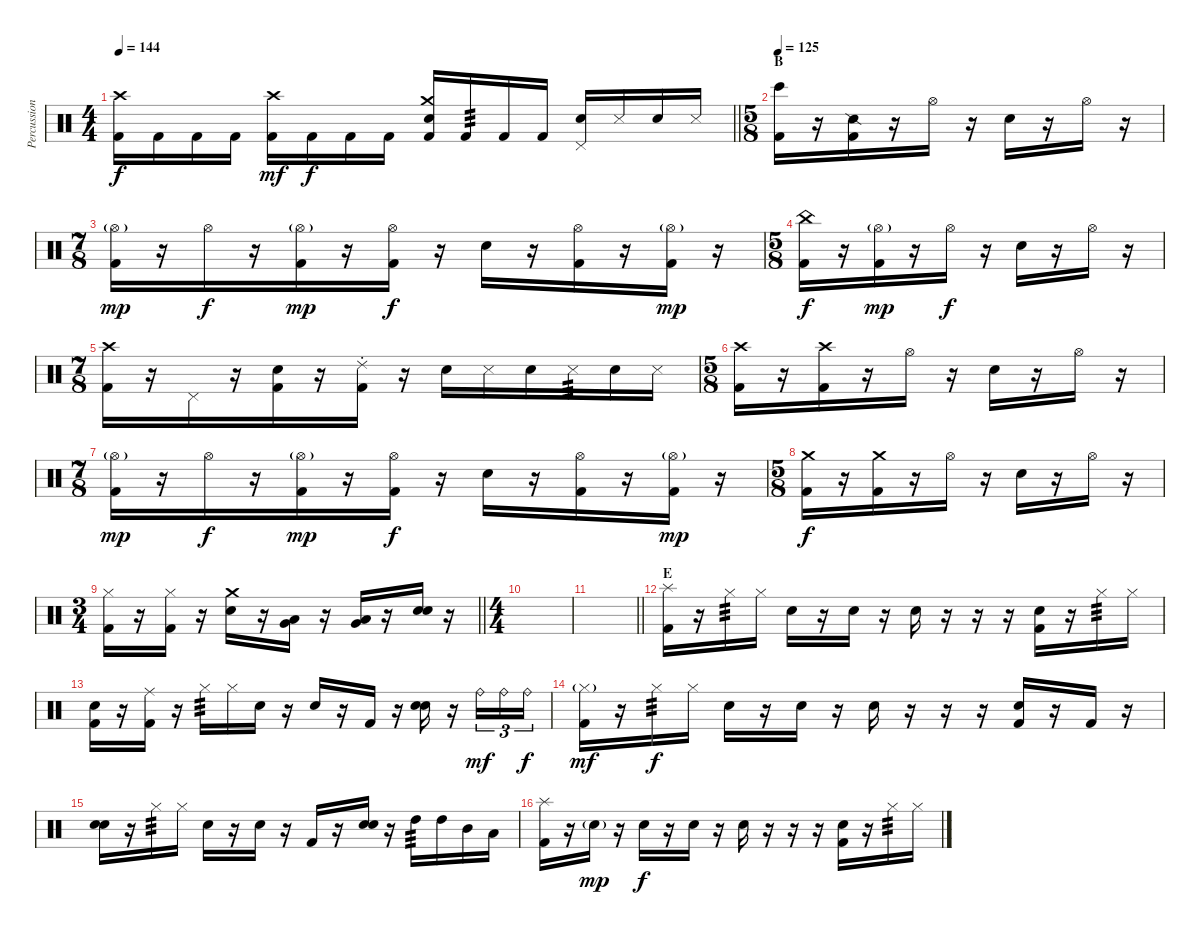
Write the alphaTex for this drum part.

\track ("Percussion" "Percussion") {instrument percussion}
\staff {score}
\articulation defaults
\ts (4 4)
\tempo 144
\clef neutral
\barLineRight lightlight
\ks c
("Crash high (hit)" "Kick (hit) 2").16{dy f} "Kick (hit) 2".16 "Kick (hit) 2".16 "Kick (hit) 2".16 ("Crash high (hit)" "Kick (hit) 2").16{dy mf} "Kick (hit) 2".16{dy f} "Kick (hit) 2".16 "Kick (hit) 2".16 ("Crash medium (hit)" "Snare (hit) 2" "Kick (hit) 2").16 "Kick (hit) 2".16{tp 3} "Kick (hit) 2".16 "Kick (hit) 2".16 ("Pedal Hi-Hat (hit)" "Snare (hit) 2").16 "Metronome (hit)".16 "Snare (hit) 2".16 "Metronome (hit)".16 |
\ts (5 8)
\section ("" "B")
\tempo 125
("Bongo High (hit)" "Kick (hit) 2").16 r.16 ("Snare (side stick) 2" "Kick (hit) 2").16 r.16 "Hi-Hat (open)".16 r.16 "Snare (hit) 2".16 r.16 "Hi-Hat (open)".16 r.16 |
\ts (7 8)
("Hi-Hat (open)"{g} "Kick (hit) 2").16{dy mp} r.16 "Hi-Hat (open)".16{dy f} r.16 ("Hi-Hat (open)"{g} "Kick (hit) 2").16{dy mp} r.16 ("Hi-Hat (open)" "Kick (hit) 2").16{dy f} r.16 "Snare (hit) 2".16 r.16 ("Hi-Hat (open)" "Kick (hit) 2").16 r.16 ("Hi-Hat (open)"{g} "Kick (hit) 2").16{dy mp} r.16 |
\ts (5 8)
("China (hit)" "Kick (hit) 2").16{dy f} r.16 ("Hi-Hat (open)"{g} "Kick (hit) 2").16{dy mp} r.16 "Hi-Hat (open)".16{dy f} r.16 "Snare (hit) 2".16 r.16 "Hi-Hat (open)".16 r.16 |
\ts (7 8)
("Crash high (hit)" "Kick (hit) 2").16 r.16 "Pedal Hi-Hat (hit)".16 r.16 ("Snare (hit)" "Kick (hit) 2").16 r.16 ("Ride (choke) 2" "Kick (hit) 2").16 r.16 "Snare (hit) 2".16 "Metronome (hit)".16 "Snare (hit) 2".16 "Metronome (hit)".16{tp 3} "Snare (hit) 2".16 "Metronome (hit)".16 |
\ts (5 8)
("Crash high (hit)" "Kick (hit) 2").16 r.16 ("Crash high (hit)" "Kick (hit) 2").16 r.16 "Hi-Hat (open)".16 r.16 "Snare (hit) 2".16 r.16 "Hi-Hat (open)".16 r.16 |
\ts (7 8)
("Hi-Hat (open)"{g} "Kick (hit) 2").16{dy mp} r.16 "Hi-Hat (open)".16{dy f} r.16 ("Hi-Hat (open)"{g} "Kick (hit) 2").16{dy mp} r.16 ("Hi-Hat (open)" "Kick (hit) 2").16{dy f} r.16 "Snare (hit) 2".16 r.16 ("Hi-Hat (open)" "Kick (hit) 2").16 r.16 ("Hi-Hat (open)"{g} "Kick (hit) 2").16{dy mp} r.16 |
\ts (5 8)
("Crash medium (hit)" "Kick (hit) 2").16{dy f} r.16 ("Crash medium (hit)" "Kick (hit) 2").16 r.16 "Hi-Hat (open)".16 r.16 "Snare (hit) 2".16 r.16 "Hi-Hat (open)".16 r.16 |
\ts (3 4)
\barLineRight lightlight
("Hi-Hat (closed)" "Kick (hit) 2").16 r.16 ("Hi-Hat (closed)" "Kick (hit) 2").16 r.16 ("Crash medium (hit)" "Snare (hit) 2").16 r.16 ("Low Tom (hit)" "Very Low Tom (hit)").16{bu 60} r.16 ("Low Tom (hit)" "Very Low Tom (hit)").16{bu 60} r.16 ("Snare (hit)" "Snare (hit) 2").16 r.16 |
\ts (4 4)
|
\barLineRight lightlight
|
\section ("" "E")
("Splash (hit)" "Kick (hit) 2").16 r.16 "Hi-Hat (closed)".16{tp 3} "Hi-Hat (closed)".16 "Snare (hit)".16 r.16 "Snare (hit) 2".16 r.16 "Snare (hit)".16 r.16 r.16 r.16 ("Snare (hit)" "Kick (hit) 2").16 r.16 "Hi-Hat (closed)".16{tp 3} "Hi-Hat (closed)".16 |
("Snare (hit)" "Kick (hit) 2").16 r.16 ("Ride (middle)" "Kick (hit) 2").16 r.16 "Hi-Hat (closed)".16{tp 3} "Hi-Hat (closed)".16 "Snare (hit)".16 r.16 "Snare (hit)".16 r.16 "Kick (hit) 2".16 r.16 ("Snare (hit)" "Snare (hit) 2").16 r.16 "Ride (bell)".16{tu (3 2) dy mf} "Ride (bell)".16{tu (3 2)} "Ride (bell)".16{tu (3 2) dy f} |
("Hi-Hat (closed)"{g} "Kick (hit) 2").16{dy mf} r.16 "Hi-Hat (closed)".16{tp 3 dy f} "Hi-Hat (closed)".16 "Snare (hit)".16 r.16 "Snare (hit) 2".16 r.16 "Snare (hit)".16 r.16 r.16 r.16 ("Snare (hit)" "Kick (hit) 2").16 r.16 "Kick (hit) 2".16 r.16 |
("Snare (hit)" "Snare (hit) 2").16 r.16 "Hi-Hat (closed)".16{tp 3} "Hi-Hat (closed)".16 "Snare (hit)".16 r.16 "Snare (hit)".16 r.16 "Kick (hit) 2".16 r.16 ("Snare (hit)" "Snare (hit) 2").16 r.16 "High Tom (hit)".16{tp 3} "High Tom (hit)".16 "Mid Tom (hit)".16 "Low Tom (hit)".16 |
("Splash (hit)" "Kick (hit) 2").16 r.16 "Snare (hit)"{g}.16{dy mp} r.16 "Snare (hit)".16{dy f} r.16 "Snare (hit) 2".16 r.16 "Snare (hit)".16 r.16 r.16 r.16 ("Snare (hit)" "Kick (hit) 2").16 r.16 "Hi-Hat (closed)".16{tp 3} "Hi-Hat (closed)".16
